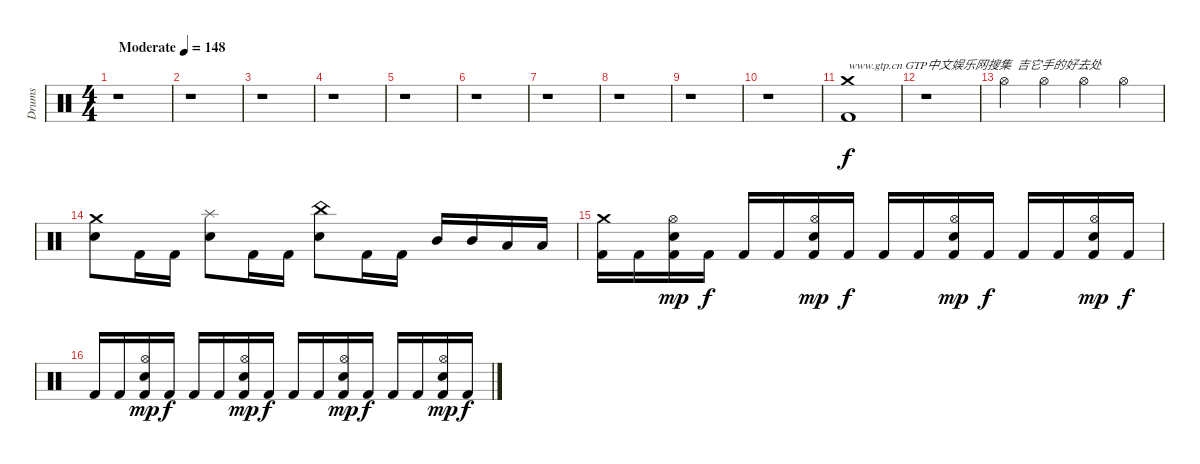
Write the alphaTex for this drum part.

\track ("Drums" "Drums") {instrument percussion}
\staff
\articulation defaults
\ts (4 4)
\tempo (148 "Moderate")
\clef neutral
\ks c
r.1{dy f} |
r.1 |
r.1 |
r.1 |
r.1 |
r.1 |
r.1 |
r.1 |
r.1 |
r.1 |
("Crash medium (hit)" "Kick (hit) 2").1{txt "www.gtp.cn GTP中文娱乐网搜集  吉它手的好去处"} |
r.1 |
"Hi-Hat (open)".4 "Hi-Hat (open)".4 "Hi-Hat (open)".4 "Hi-Hat (open)".4 |
("Crash medium (hit)" "Electric Snare (hit)").8 "Kick (hit) 2".16 "Kick (hit) 2".16 ("Splash (hit)" "Electric Snare (hit)").8 "Kick (hit) 2".16 "Kick (hit) 2".16 ("China (hit)" "Electric Snare (hit)").8 "Kick (hit) 2".16 "Kick (hit) 2".16 "Mid Tom (hit)".16 "Mid Tom (hit)".16 "Low Tom (hit)".16 "Low Tom (hit)".16 |
("Crash medium (hit)" "Kick (hit) 2").16 "Kick (hit) 2".16 ("Hi-Hat (open)" "Kick (hit) 2" "Electric Snare (hit)").16{dy mp} "Kick (hit) 2".16{dy f} "Kick (hit) 2".16 "Kick (hit) 2".16 ("Hi-Hat (open)" "Kick (hit) 2" "Electric Snare (hit)").16{dy mp} "Kick (hit) 2".16{dy f} "Kick (hit) 2".16 "Kick (hit) 2".16 ("Hi-Hat (open)" "Kick (hit) 2" "Electric Snare (hit)").16{dy mp} "Kick (hit) 2".16{dy f} "Kick (hit) 2".16 "Kick (hit) 2".16 ("Hi-Hat (open)" "Kick (hit) 2" "Electric Snare (hit)").16{dy mp} "Kick (hit) 2".16{dy f} |
"Kick (hit) 2".16 "Kick (hit) 2".16 ("Hi-Hat (open)" "Kick (hit) 2" "Electric Snare (hit)").16{dy mp} "Kick (hit) 2".16{dy f} "Kick (hit) 2".16 "Kick (hit) 2".16 ("Hi-Hat (open)" "Kick (hit) 2" "Electric Snare (hit)").16{dy mp} "Kick (hit) 2".16{dy f} "Kick (hit) 2".16 "Kick (hit) 2".16 ("Hi-Hat (open)" "Kick (hit) 2" "Electric Snare (hit)").16{dy mp} "Kick (hit) 2".16{dy f} "Kick (hit) 2".16 "Kick (hit) 2".16 ("Hi-Hat (open)" "Kick (hit) 2" "Electric Snare (hit)").16{dy mp} "Kick (hit) 2".16{dy f}
